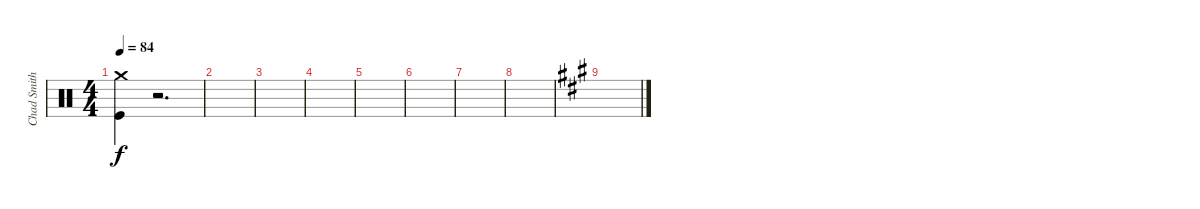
\track ("Chad Smith" "Chad Smith") {instrument percussion}
\staff {score}
\articulation defaults
\ts (4 4)
\tempo 84
\clef neutral
\ks c
("Crash medium (hit)" "Kick (hit)").4{dy f} r.2{d} |
|
|
|
|
|
|
|
\ks a
